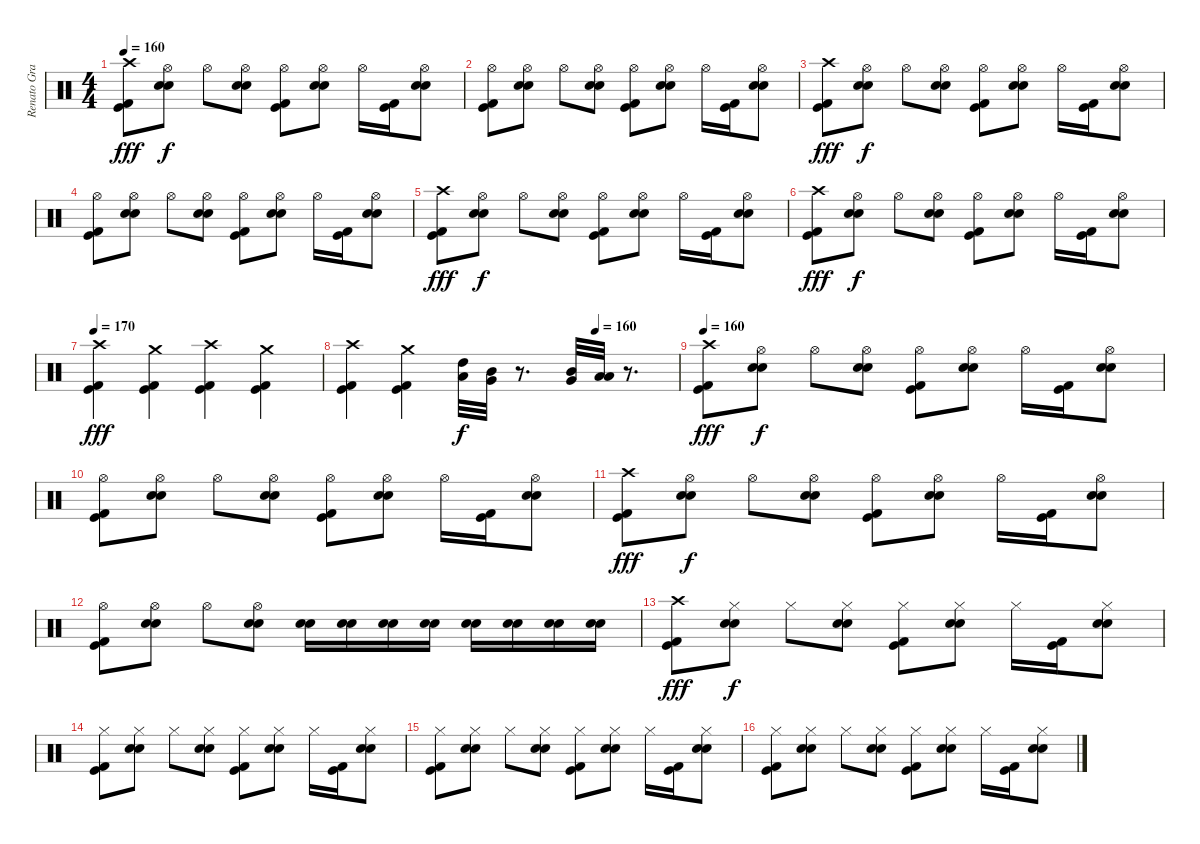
\track ("Renato Graccia" "Renato Gra") {instrument percussion}
\staff {score}
\articulation defaults
\ts (4 4)
\tempo 160
\clef neutral
\ks c
("Crash high (hit)" "Kick (hit) 2" "Kick (hit)").8{dy fff} ("Hi-Hat (open)" "Electric Snare (hit)" "Snare (hit) 2").8{dy f} "Hi-Hat (open)".8 ("Hi-Hat (open)" "Electric Snare (hit)" "Snare (hit) 2").8 ("Hi-Hat (open)" "Kick (hit) 2" "Kick (hit)").8 ("Hi-Hat (open)" "Electric Snare (hit)" "Snare (hit) 2").8 "Hi-Hat (open)".16 ("Kick (hit) 2" "Kick (hit)").16 ("Hi-Hat (open)" "Electric Snare (hit)" "Snare (hit) 2").8 |
("Hi-Hat (open)" "Kick (hit) 2" "Kick (hit)").8 ("Hi-Hat (open)" "Electric Snare (hit)" "Snare (hit) 2").8 "Hi-Hat (open)".8 ("Hi-Hat (open)" "Electric Snare (hit)" "Snare (hit) 2").8 ("Hi-Hat (open)" "Kick (hit) 2" "Kick (hit)").8 ("Hi-Hat (open)" "Electric Snare (hit)" "Snare (hit) 2").8 "Hi-Hat (open)".16 ("Kick (hit) 2" "Kick (hit)").16 ("Hi-Hat (open)" "Electric Snare (hit)" "Snare (hit) 2").8 |
("Crash high (hit)" "Kick (hit) 2" "Kick (hit)").8{dy fff} ("Hi-Hat (open)" "Electric Snare (hit)" "Snare (hit) 2").8{dy f} "Hi-Hat (open)".8 ("Hi-Hat (open)" "Electric Snare (hit)" "Snare (hit) 2").8 ("Hi-Hat (open)" "Kick (hit) 2" "Kick (hit)").8 ("Hi-Hat (open)" "Electric Snare (hit)" "Snare (hit) 2").8 "Hi-Hat (open)".16 ("Kick (hit) 2" "Kick (hit)").16 ("Hi-Hat (open)" "Electric Snare (hit)" "Snare (hit) 2").8 |
("Hi-Hat (open)" "Kick (hit) 2" "Kick (hit)").8 ("Hi-Hat (open)" "Electric Snare (hit)" "Snare (hit) 2").8 "Hi-Hat (open)".8 ("Hi-Hat (open)" "Electric Snare (hit)" "Snare (hit) 2").8 ("Hi-Hat (open)" "Kick (hit) 2" "Kick (hit)").8 ("Hi-Hat (open)" "Electric Snare (hit)" "Snare (hit) 2").8 "Hi-Hat (open)".16 ("Kick (hit) 2" "Kick (hit)").16 ("Hi-Hat (open)" "Electric Snare (hit)" "Snare (hit) 2").8 |
("Crash high (hit)" "Kick (hit) 2" "Kick (hit)").8{dy fff} ("Hi-Hat (open)" "Electric Snare (hit)" "Snare (hit) 2").8{dy f} "Hi-Hat (open)".8 ("Hi-Hat (open)" "Electric Snare (hit)" "Snare (hit) 2").8 ("Hi-Hat (open)" "Kick (hit) 2" "Kick (hit)").8 ("Hi-Hat (open)" "Electric Snare (hit)" "Snare (hit) 2").8 "Hi-Hat (open)".16 ("Kick (hit) 2" "Kick (hit)").16 ("Hi-Hat (open)" "Electric Snare (hit)" "Snare (hit) 2").8 |
("Crash high (hit)" "Kick (hit) 2" "Kick (hit)").8{dy fff} ("Hi-Hat (open)" "Electric Snare (hit)" "Snare (hit) 2").8{dy f} "Hi-Hat (open)".8 ("Hi-Hat (open)" "Electric Snare (hit)" "Snare (hit) 2").8 ("Hi-Hat (open)" "Kick (hit) 2" "Kick (hit)").8 ("Hi-Hat (open)" "Electric Snare (hit)" "Snare (hit) 2").8 "Hi-Hat (open)".16 ("Kick (hit) 2" "Kick (hit)").16 ("Hi-Hat (open)" "Electric Snare (hit)" "Snare (hit) 2").8 |
\tempo 170
("Crash high (hit)" "Kick (hit) 2" "Kick (hit)").4{dy fff} ("Crash medium (hit)" "Kick (hit) 2" "Kick (hit)").4 ("Crash high (hit)" "Kick (hit) 2" "Kick (hit)").4 ("Crash medium (hit)" "Kick (hit) 2" "Kick (hit)").4 |
\tempo (160 0.75)
("Crash high (hit)" "Kick (hit) 2" "Kick (hit)").4 ("Crash medium (hit)" "Kick (hit) 2" "Kick (hit)").4 ("High Tom (hit)" "Low Tom (hit)").32{dy f} ("Mid Tom (hit)" "Very Low Tom (hit)").32 r.8{d} ("Mid Tom (hit)" "Very Low Tom (hit)").32 ("Low Tom (hit)" "Low Floor Tom (hit)").32 r.8{d} |
\tempo 160
("Crash high (hit)" "Kick (hit) 2" "Kick (hit)").8{dy fff} ("Hi-Hat (open)" "Electric Snare (hit)" "Snare (hit) 2").8{dy f} "Hi-Hat (open)".8 ("Hi-Hat (open)" "Electric Snare (hit)" "Snare (hit) 2").8 ("Hi-Hat (open)" "Kick (hit) 2" "Kick (hit)").8 ("Hi-Hat (open)" "Electric Snare (hit)" "Snare (hit) 2").8 "Hi-Hat (open)".16 ("Kick (hit) 2" "Kick (hit)").16 ("Hi-Hat (open)" "Electric Snare (hit)" "Snare (hit) 2").8 |
("Hi-Hat (open)" "Kick (hit) 2" "Kick (hit)").8 ("Hi-Hat (open)" "Electric Snare (hit)" "Snare (hit) 2").8 "Hi-Hat (open)".8 ("Hi-Hat (open)" "Electric Snare (hit)" "Snare (hit) 2").8 ("Hi-Hat (open)" "Kick (hit) 2" "Kick (hit)").8 ("Hi-Hat (open)" "Electric Snare (hit)" "Snare (hit) 2").8 "Hi-Hat (open)".16 ("Kick (hit) 2" "Kick (hit)").16 ("Hi-Hat (open)" "Electric Snare (hit)" "Snare (hit) 2").8 |
("Crash high (hit)" "Kick (hit) 2" "Kick (hit)").8{dy fff} ("Hi-Hat (open)" "Electric Snare (hit)" "Snare (hit) 2").8{dy f} "Hi-Hat (open)".8 ("Hi-Hat (open)" "Electric Snare (hit)" "Snare (hit) 2").8 ("Hi-Hat (open)" "Kick (hit) 2" "Kick (hit)").8 ("Hi-Hat (open)" "Electric Snare (hit)" "Snare (hit) 2").8 "Hi-Hat (open)".16 ("Kick (hit) 2" "Kick (hit)").16 ("Hi-Hat (open)" "Electric Snare (hit)" "Snare (hit) 2").8 |
("Hi-Hat (open)" "Kick (hit) 2" "Kick (hit)").8 ("Hi-Hat (open)" "Electric Snare (hit)" "Snare (hit) 2").8 "Hi-Hat (open)".8 ("Hi-Hat (open)" "Electric Snare (hit)" "Snare (hit) 2").8 ("Electric Snare (hit)" "Snare (hit) 2").16 ("Electric Snare (hit)" "Snare (hit) 2").16 ("Electric Snare (hit)" "Snare (hit) 2").16 ("Electric Snare (hit)" "Snare (hit) 2").16 ("Electric Snare (hit)" "Snare (hit) 2").16 ("Electric Snare (hit)" "Snare (hit) 2").16 ("Electric Snare (hit)" "Snare (hit) 2").16 ("Electric Snare (hit)" "Snare (hit) 2").16 |
("Crash high (hit)" "Kick (hit) 2" "Kick (hit)").8{dy fff} ("Hi-Hat (closed)" "Electric Snare (hit)" "Snare (hit) 2").8{dy f} "Hi-Hat (closed)".8 ("Hi-Hat (closed)" "Electric Snare (hit)" "Snare (hit) 2").8 ("Hi-Hat (closed)" "Kick (hit) 2" "Kick (hit)").8 ("Hi-Hat (closed)" "Electric Snare (hit)" "Snare (hit) 2").8 "Hi-Hat (closed)".16 ("Kick (hit) 2" "Kick (hit)").16 ("Hi-Hat (closed)" "Electric Snare (hit)" "Snare (hit) 2").8 |
("Hi-Hat (closed)" "Kick (hit) 2" "Kick (hit)").8 ("Hi-Hat (closed)" "Electric Snare (hit)" "Snare (hit) 2").8 "Hi-Hat (closed)".8 ("Hi-Hat (closed)" "Electric Snare (hit)" "Snare (hit) 2").8 ("Hi-Hat (closed)" "Kick (hit) 2" "Kick (hit)").8 ("Hi-Hat (closed)" "Electric Snare (hit)" "Snare (hit) 2").8 "Hi-Hat (closed)".16 ("Kick (hit) 2" "Kick (hit)").16 ("Hi-Hat (closed)" "Electric Snare (hit)" "Snare (hit) 2").8 |
("Hi-Hat (closed)" "Kick (hit) 2" "Kick (hit)").8 ("Hi-Hat (closed)" "Electric Snare (hit)" "Snare (hit) 2").8 "Hi-Hat (closed)".8 ("Hi-Hat (closed)" "Electric Snare (hit)" "Snare (hit) 2").8 ("Hi-Hat (closed)" "Kick (hit) 2" "Kick (hit)").8 ("Hi-Hat (closed)" "Electric Snare (hit)" "Snare (hit) 2").8 "Hi-Hat (closed)".16 ("Kick (hit) 2" "Kick (hit)").16 ("Hi-Hat (closed)" "Electric Snare (hit)" "Snare (hit) 2").8 |
("Hi-Hat (closed)" "Kick (hit) 2" "Kick (hit)").8 ("Hi-Hat (closed)" "Electric Snare (hit)" "Snare (hit) 2").8 "Hi-Hat (closed)".8 ("Hi-Hat (closed)" "Electric Snare (hit)" "Snare (hit) 2").8 ("Hi-Hat (closed)" "Kick (hit) 2" "Kick (hit)").8 ("Hi-Hat (closed)" "Electric Snare (hit)" "Snare (hit) 2").8 "Hi-Hat (closed)".16 ("Kick (hit) 2" "Kick (hit)").16 ("Hi-Hat (closed)" "Electric Snare (hit)" "Snare (hit) 2").8
